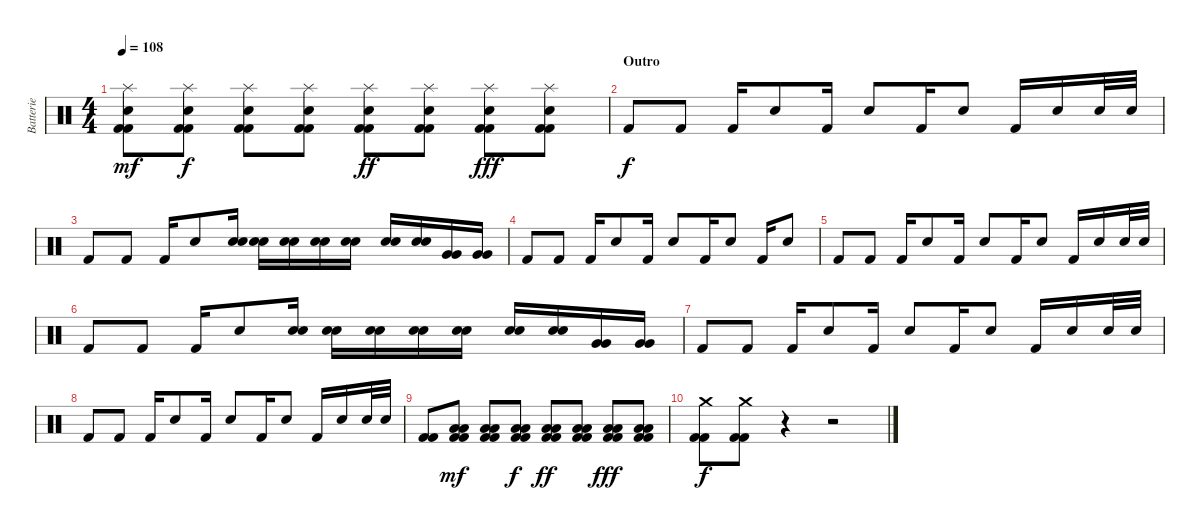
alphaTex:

\track ("Batterie" "Batterie") {instrument percussion}
\staff {score}
\articulation defaults
\ts (4 4)
\tempo 108
\clef neutral
\ks c
("Splash (hit)" "Electric Snare (hit)" "Kick (hit) 2" "Kick (hit) 2").8{dy mf} ("Splash (hit)" "Electric Snare (hit)" "Kick (hit) 2" "Kick (hit) 2").8{dy f} ("Splash (hit)" "Electric Snare (hit)" "Kick (hit) 2" "Kick (hit) 2").8 ("Splash (hit)" "Electric Snare (hit)" "Kick (hit) 2" "Kick (hit) 2").8 ("Splash (hit)" "Electric Snare (hit)" "Kick (hit) 2" "Kick (hit) 2").8{dy ff} ("Splash (hit)" "Electric Snare (hit)" "Kick (hit) 2" "Kick (hit) 2").8 ("Splash (hit)" "Electric Snare (hit)" "Kick (hit) 2" "Kick (hit) 2").8{dy fff} ("Splash (hit)" "Electric Snare (hit)" "Kick (hit) 2" "Kick (hit) 2").8 |
\section ("" "Outro")
"Kick (hit) 2".8{dy f} "Kick (hit) 2".8 "Kick (hit) 2".16 "Electric Snare (hit)".8 "Kick (hit) 2".16 "Electric Snare (hit)".8 "Kick (hit) 2".16 "Electric Snare (hit)".8 "Kick (hit) 2".16 "Electric Snare (hit)".16 "Electric Snare (hit)".32 "Electric Snare (hit)".32 |
"Kick (hit) 2".8 "Kick (hit) 2".8 "Kick (hit) 2".16 "Electric Snare (hit)".8 ("Electric Snare (hit)" "Electric Snare (hit)").16 ("Electric Snare (hit)" "Electric Snare (hit)").16 ("Electric Snare (hit)" "Electric Snare (hit)").16 ("Electric Snare (hit)" "Electric Snare (hit)").16 ("Electric Snare (hit)" "Electric Snare (hit)").16 ("Electric Snare (hit)" "Electric Snare (hit)").16 ("Electric Snare (hit)" "Electric Snare (hit)").16 ("Very Low Tom (hit)" "Very Low Tom (hit)").16 ("Very Low Tom (hit)" "Very Low Tom (hit)").16 |
"Kick (hit) 2".8 "Kick (hit) 2".8 "Kick (hit) 2".16 "Electric Snare (hit)".8 "Kick (hit) 2".16 "Electric Snare (hit)".8 "Kick (hit) 2".16 "Electric Snare (hit)".8 "Kick (hit) 2".16 "Electric Snare (hit)".8 |
"Kick (hit) 2".8 "Kick (hit) 2".8 "Kick (hit) 2".16 "Electric Snare (hit)".8 "Kick (hit) 2".16 "Electric Snare (hit)".8 "Kick (hit) 2".16 "Electric Snare (hit)".8 "Kick (hit) 2".16 "Electric Snare (hit)".16 "Electric Snare (hit)".32 "Electric Snare (hit)".32 |
"Kick (hit) 2".8 "Kick (hit) 2".8 "Kick (hit) 2".16 "Electric Snare (hit)".8 ("Electric Snare (hit)" "Electric Snare (hit)").16 ("Electric Snare (hit)" "Electric Snare (hit)").16 ("Electric Snare (hit)" "Electric Snare (hit)").16 ("Electric Snare (hit)" "Electric Snare (hit)").16 ("Electric Snare (hit)" "Electric Snare (hit)").16 ("Electric Snare (hit)" "Electric Snare (hit)").16 ("Electric Snare (hit)" "Electric Snare (hit)").16 ("Very Low Tom (hit)" "Very Low Tom (hit)").16 ("Very Low Tom (hit)" "Very Low Tom (hit)").16 |
"Kick (hit) 2".8 "Kick (hit) 2".8 "Kick (hit) 2".16 "Electric Snare (hit)".8 "Kick (hit) 2".16 "Electric Snare (hit)".8 "Kick (hit) 2".16 "Electric Snare (hit)".8 "Kick (hit) 2".16 "Electric Snare (hit)".16 "Electric Snare (hit)".32 "Electric Snare (hit)".32 |
"Kick (hit) 2".8 "Kick (hit) 2".8 "Kick (hit) 2".16 "Electric Snare (hit)".8 "Kick (hit) 2".16 "Electric Snare (hit)".8 "Kick (hit) 2".16 "Electric Snare (hit)".8 "Kick (hit) 2".16 "Electric Snare (hit)".16 "Electric Snare (hit)".32 "Electric Snare (hit)".32 |
("Kick (hit) 2" "Kick (hit) 2").8 ("Low Floor Tom (hit)" "Low Floor Tom (hit)" "Kick (hit) 2" "Kick (hit) 2").8{dy mf} ("Low Floor Tom (hit)" "Low Floor Tom (hit)" "Kick (hit) 2" "Kick (hit) 2").8 ("Low Floor Tom (hit)" "Low Floor Tom (hit)" "Kick (hit) 2" "Kick (hit) 2").8{dy f} ("Low Floor Tom (hit)" "Low Floor Tom (hit)" "Kick (hit) 2" "Kick (hit) 2").8{dy ff} ("Low Floor Tom (hit)" "Low Floor Tom (hit)" "Kick (hit) 2" "Kick (hit) 2").8 ("Low Floor Tom (hit)" "Low Floor Tom (hit)" "Kick (hit) 2" "Kick (hit) 2").8{dy fff} ("Low Floor Tom (hit)" "Low Floor Tom (hit)" "Kick (hit) 2" "Kick (hit) 2").8 |
("Crash medium (hit)" "Kick (hit) 2" "Kick (hit) 2").8{dy f} ("Crash medium (hit)" "Kick (hit) 2" "Kick (hit) 2").8 r.4 r.2
